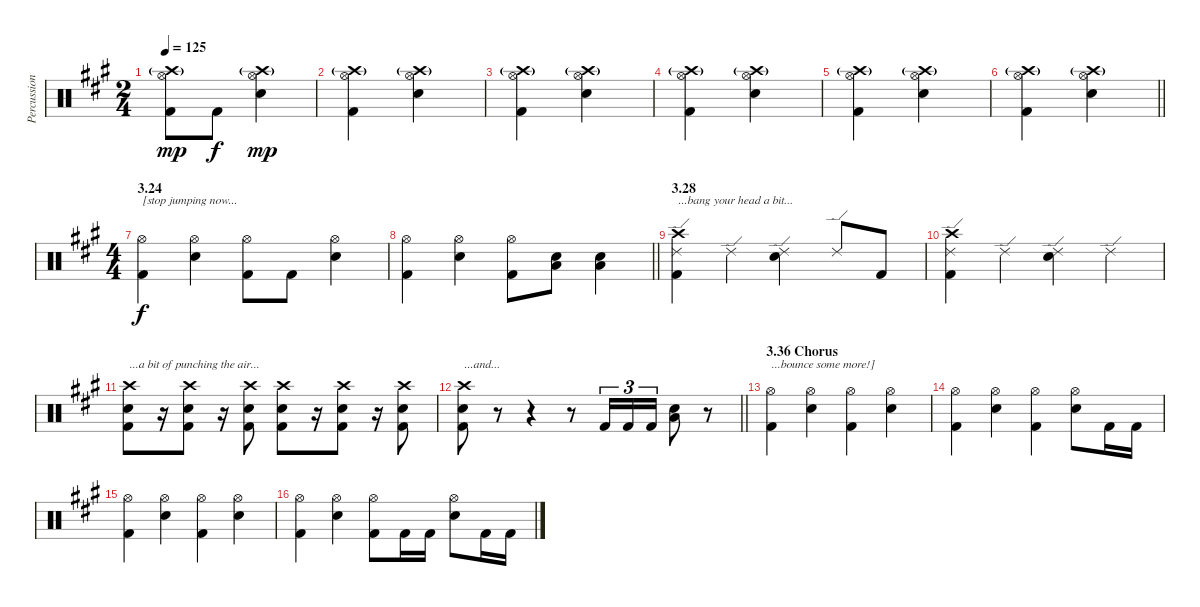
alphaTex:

\track ("Percussion" "Percussion") {instrument percussion}
\staff {score}
\articulation defaults
\ts (2 4)
\tempo 125
\clef neutral
\ks f#minor
("Crash high (hit)"{g} "Hi-Hat (open)" "Kick (hit) 2").8{dy mp} "Kick (hit) 2".8{dy f} ("Crash high (hit)"{g} "Hi-Hat (open)" "Electric Snare (hit)").4{dy mp} |
("Crash high (hit)"{g} "Hi-Hat (open)" "Kick (hit) 2").4 ("Crash high (hit)"{g} "Hi-Hat (open)" "Electric Snare (hit)").4 |
("Crash high (hit)"{g} "Hi-Hat (open)" "Kick (hit) 2").4 ("Crash high (hit)"{g} "Hi-Hat (open)" "Electric Snare (hit)").4 |
("Crash high (hit)"{g} "Hi-Hat (open)" "Kick (hit) 2").4 ("Crash high (hit)"{g} "Hi-Hat (open)" "Electric Snare (hit)").4 |
("Crash high (hit)"{g} "Hi-Hat (open)" "Kick (hit) 2").4 ("Crash high (hit)"{g} "Hi-Hat (open)" "Electric Snare (hit)").4 |
\barLineRight lightlight
("Crash high (hit)"{g} "Hi-Hat (open)" "Kick (hit) 2").4 ("Crash high (hit)"{g} "Hi-Hat (open)" "Electric Snare (hit)").4 |
\ts (4 4)
\section ("" "3.24")
("Hi-Hat (open)" "Kick (hit) 2").4{txt "[stop jumping now..." dy f} ("Hi-Hat (open)" "Electric Snare (hit)").4 ("Hi-Hat (open)" "Kick (hit) 2").8 "Kick (hit) 2".8 ("Hi-Hat (open)" "Electric Snare (hit)").4 |
\barLineRight lightlight
("Hi-Hat (open)" "Kick (hit) 2").4 ("Hi-Hat (open)" "Electric Snare (hit)").4 ("Hi-Hat (open)" "Kick (hit) 2").8 ("Electric Snare (hit)" "Low Floor Tom (hit)").8 ("Electric Snare (hit)" "Low Floor Tom (hit)").4 |
\section ("" "3.28")
("Crash high (hit)" "Ride (edge) 2" "Kick (hit) 2").4{txt "...bang your head a bit..."} "Ride (edge) 2".4 ("Ride (edge) 2" "Electric Snare (hit)").4 "Ride (edge) 2".8 "Kick (hit) 2".8 |
("Crash high (hit)" "Ride (edge) 2" "Kick (hit) 2").4 "Ride (edge) 2".4 ("Ride (edge) 2" "Electric Snare (hit)").4 "Ride (edge) 2".4 |
("Crash high (hit)" "Electric Snare (hit)" "Kick (hit) 2").8{txt "...a bit of punching the air..."} r.16 ("Crash high (hit)" "Electric Snare (hit)" "Kick (hit) 2").8 r.16 ("Crash high (hit)" "Electric Snare (hit)" "Kick (hit) 2").8 ("Crash high (hit)" "Electric Snare (hit)" "Kick (hit) 2").8 r.16 ("Crash high (hit)" "Electric Snare (hit)" "Kick (hit) 2").8 r.16 ("Crash high (hit)" "Electric Snare (hit)" "Kick (hit) 2").8 |
\barLineRight lightlight
("Crash high (hit)" "Electric Snare (hit)" "Kick (hit) 2").8{txt "...and..."} r.8 r.4 r.8 "Kick (hit) 2".16{tu (3 2)} "Kick (hit) 2".16{tu (3 2)} "Kick (hit) 2".16{tu (3 2)} ("Electric Snare (hit)" "Low Floor Tom (hit)").8 r.8 |
\section ("" "3.36 Chorus")
("Hi-Hat (open)" "Kick (hit) 2").4{txt "...bounce some more!]"} ("Hi-Hat (open)" "Electric Snare (hit)").4 ("Hi-Hat (open)" "Kick (hit) 2").4 ("Hi-Hat (open)" "Electric Snare (hit)").4 |
("Hi-Hat (open)" "Kick (hit) 2").4 ("Hi-Hat (open)" "Electric Snare (hit)").4 ("Hi-Hat (open)" "Kick (hit) 2").4 ("Hi-Hat (open)" "Electric Snare (hit)").8 "Kick (hit) 2".16 "Kick (hit) 2".16 |
("Hi-Hat (open)" "Kick (hit) 2").4 ("Hi-Hat (open)" "Electric Snare (hit)").4 ("Hi-Hat (open)" "Kick (hit) 2").4 ("Hi-Hat (open)" "Electric Snare (hit)").4 |
("Hi-Hat (open)" "Kick (hit) 2").4 ("Hi-Hat (open)" "Electric Snare (hit)").4 ("Hi-Hat (open)" "Kick (hit) 2").8 "Kick (hit) 2".16 "Kick (hit) 2".16 ("Hi-Hat (open)" "Electric Snare (hit)").8 "Kick (hit) 2".16 "Kick (hit) 2".16
